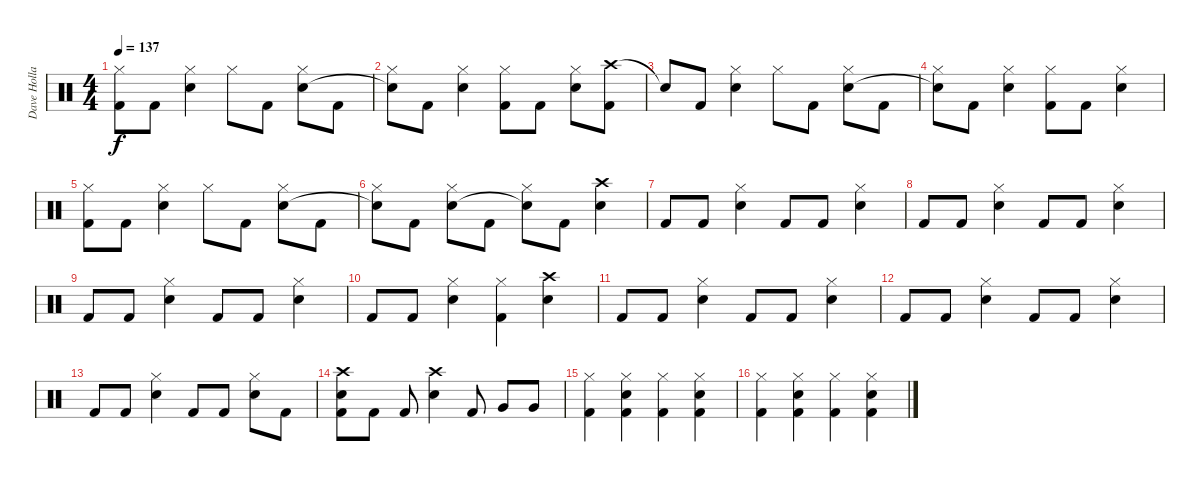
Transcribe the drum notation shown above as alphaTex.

\track ("Dave Holland" "Dave Holla") {instrument percussion}
\staff {score}
\articulation defaults
\ts (4 4)
\tempo 137
\clef neutral
\ks c
("Hi-Hat (closed)" "Kick (hit) 2").8{dy f} "Kick (hit) 2".8 ("Hi-Hat (closed)" "Snare (hit) 2").4 "Hi-Hat (closed)".8 "Kick (hit) 2".8 ("Hi-Hat (closed)" "Snare (hit) 2").8 "Kick (hit) 2".8 |
("Hi-Hat (closed)" "Snare (hit)"{t}).8 "Kick (hit) 2".8 ("Hi-Hat (closed)" "Snare (hit) 2").4 ("Hi-Hat (closed)" "Kick (hit) 2").8 "Kick (hit) 2".8 ("Hi-Hat (closed)" "Snare (hit) 2").8 ("Crash high (hit)" "Kick (hit) 2").8 |
"Snare (hit)"{t}.8 "Kick (hit) 2".8 ("Hi-Hat (closed)" "Snare (hit) 2").4 "Hi-Hat (closed)".8 "Kick (hit) 2".8 ("Hi-Hat (closed)" "Snare (hit) 2").8 "Kick (hit) 2".8 |
("Hi-Hat (closed)" "Snare (hit)"{t}).8 "Kick (hit) 2".8 ("Hi-Hat (closed)" "Snare (hit) 2").4 ("Hi-Hat (closed)" "Kick (hit) 2").8 "Kick (hit) 2".8 ("Hi-Hat (closed)" "Snare (hit) 2").4 |
("Hi-Hat (closed)" "Kick (hit) 2").8 "Kick (hit) 2".8 ("Hi-Hat (closed)" "Snare (hit) 2").4 "Hi-Hat (closed)".8 "Kick (hit) 2".8 ("Hi-Hat (closed)" "Snare (hit) 2").8 "Kick (hit) 2".8 |
("Hi-Hat (closed)" "Snare (hit)"{t}).8 "Kick (hit) 2".8 ("Hi-Hat (closed)" "Snare (hit) 2").8 "Kick (hit) 2".8 ("Hi-Hat (closed)" "Snare (hit)"{t}).8 "Kick (hit) 2".8 ("Crash high (hit)" "Snare (hit) 2").4 |
"Kick (hit) 2".8 "Kick (hit) 2".8 ("Hi-Hat (closed)" "Snare (hit) 2").4 "Kick (hit) 2".8 "Kick (hit) 2".8 ("Hi-Hat (closed)" "Snare (hit) 2").4 |
"Kick (hit) 2".8 "Kick (hit) 2".8 ("Hi-Hat (closed)" "Snare (hit) 2").4 "Kick (hit) 2".8 "Kick (hit) 2".8 ("Hi-Hat (closed)" "Snare (hit) 2").4 |
"Kick (hit) 2".8 "Kick (hit) 2".8 ("Hi-Hat (closed)" "Snare (hit) 2").4 "Kick (hit) 2".8 "Kick (hit) 2".8 ("Hi-Hat (closed)" "Snare (hit) 2").4 |
"Kick (hit) 2".8 "Kick (hit) 2".8 ("Hi-Hat (closed)" "Snare (hit) 2").4 ("Hi-Hat (closed)" "Kick (hit) 2").4 ("Crash high (hit)" "Snare (hit) 2").4 |
"Kick (hit) 2".8 "Kick (hit) 2".8 ("Hi-Hat (closed)" "Snare (hit) 2").4 "Kick (hit) 2".8 "Kick (hit) 2".8 ("Hi-Hat (closed)" "Snare (hit) 2").4 |
"Kick (hit) 2".8 "Kick (hit) 2".8 ("Hi-Hat (closed)" "Snare (hit) 2").4 "Kick (hit) 2".8 "Kick (hit) 2".8 ("Hi-Hat (closed)" "Snare (hit) 2").4 |
"Kick (hit) 2".8 "Kick (hit) 2".8 ("Hi-Hat (closed)" "Snare (hit) 2").4 "Kick (hit) 2".8 "Kick (hit) 2".8 ("Hi-Hat (closed)" "Snare (hit) 2").8 "Kick (hit) 2".8 |
("Crash high (hit)" "Snare (hit) 2" "Kick (hit) 2").8 "Kick (hit) 2".8 "Kick (hit) 2".8 ("Crash high (hit)" "Snare (hit) 2").4 "Kick (hit) 2".8 "Very Low Tom (hit)".8 "Very Low Tom (hit)".8 |
("Hi-Hat (closed)" "Kick (hit) 2").4 ("Hi-Hat (closed)" "Snare (hit) 2" "Kick (hit) 2").4 ("Hi-Hat (closed)" "Kick (hit) 2").4 ("Hi-Hat (closed)" "Snare (hit) 2" "Kick (hit) 2").4 |
("Hi-Hat (closed)" "Kick (hit) 2").4 ("Hi-Hat (closed)" "Snare (hit) 2" "Kick (hit) 2").4 ("Hi-Hat (closed)" "Kick (hit) 2").4 ("Hi-Hat (closed)" "Snare (hit) 2" "Kick (hit) 2").4
